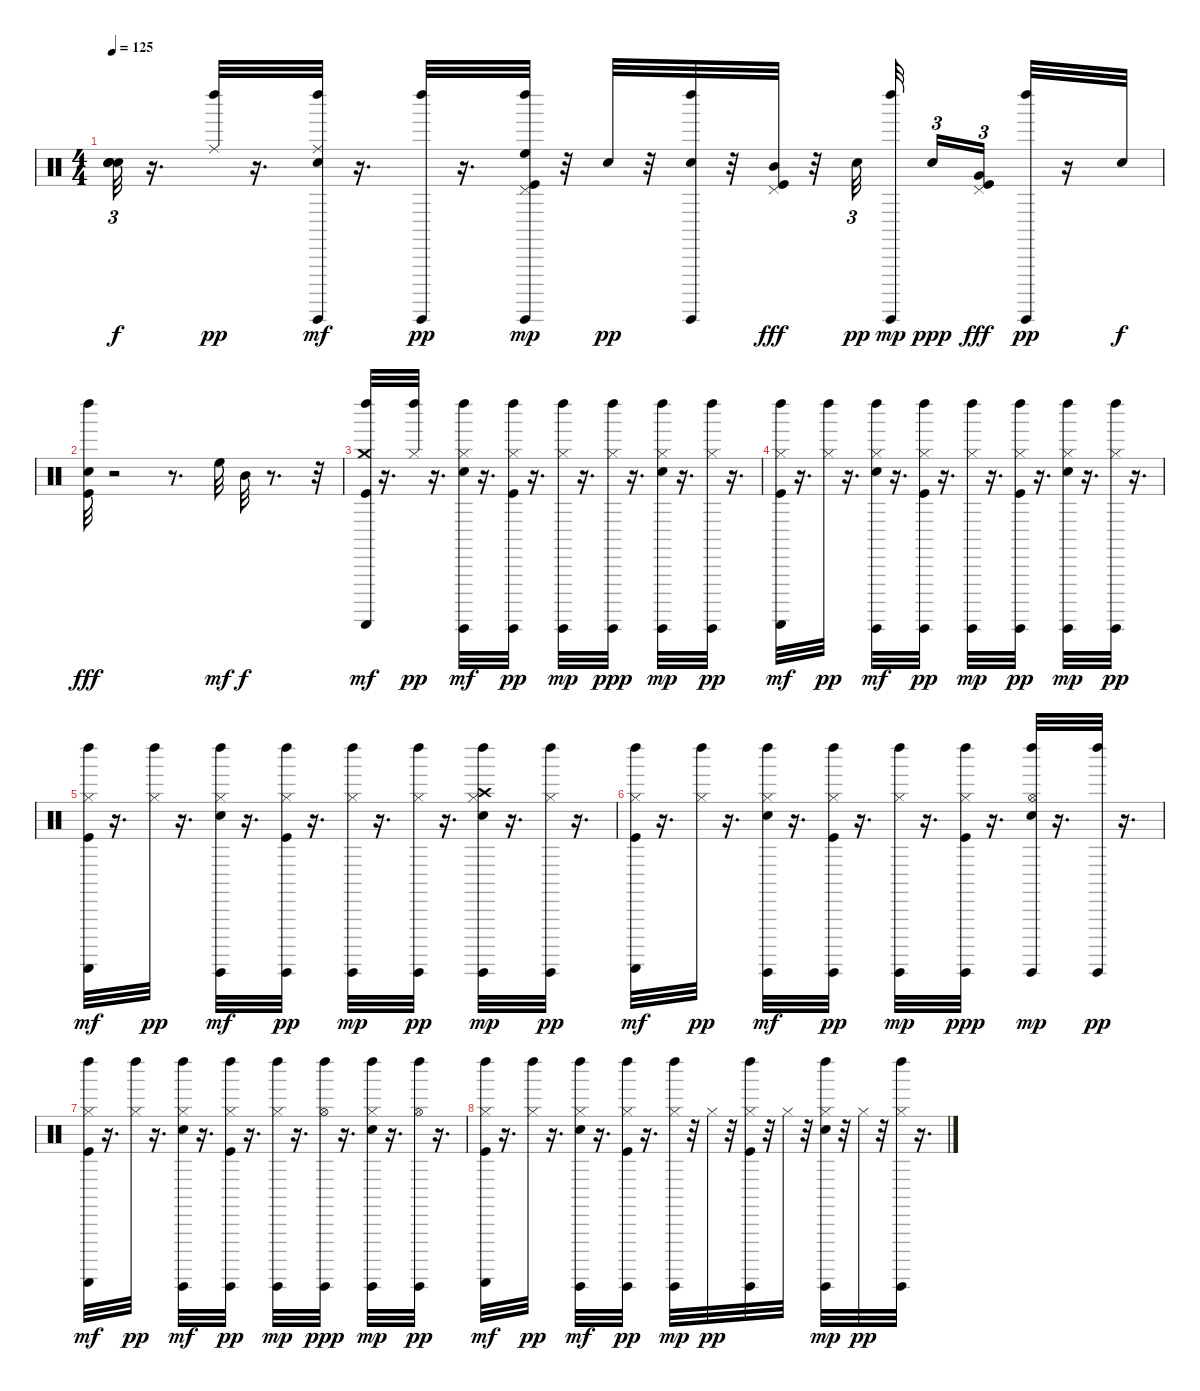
\track "" {instrument percussion}
\staff {score}
\articulation defaults
\ts (4 4)
\tempo 125
\clef neutral
\ks c
("Snare (hit)"{t} "Snare (hit)"{t} "Snare (hit)"{t} "Snare (hit)"{t}).32{tu (3 2) dy f} r.16{d} ("Left Maraca (hit)" "Ride (middle)").32{dy pp} r.16{d} ("Left Maraca (hit)" "Ride (middle)" "Electric Snare (hit)" "Guiro (hit)").32{dy mf} r.16{d} ("Left Maraca (hit)" "Guiro (hit)").32{dy pp} r.16{d} ("Kick (hit)" "Pedal Hi-Hat (hit)" "High Floor Tom (hit)" "Left Maraca (hit)" "Guiro (hit)").32{dy mp} r.32 "Electric Snare (hit)".32{dy pp} r.32 ("Electric Snare (hit)" "Left Maraca (hit)" "Guiro (hit)").32 r.32 ("Kick (hit)" "Pedal Hi-Hat (hit)" "Mid Tom (hit)").32{dy fff} r.32 "Electric Snare (hit)".32{tu (3 2) dy pp} ("Left Maraca (hit)" "Guiro (hit)").32{dy mp beam splitsecondary} "Electric Snare (hit)".16{tu (3 2) dy ppp} ("Very Low Tom (hit)" "Pedal Hi-Hat (hit)" "Kick (hit)").16{tu (3 2) dy fff beam splitsecondary} ("Left Maraca (hit)" "Guiro (hit)").32{dy pp} r.16 "Electric Snare (hit)".32{dy f} |
("Left Maraca (hit)" "Electric Snare (hit)" "Kick (hit)").32{dy fff} r.2 r.8{d} "High Floor Tom (hit)".32{dy mf} "Mid Tom (hit)".32{dy f} r.8{d} r.32 |
("Kick (hit)" "Left Maraca (hit)" "Crash medium (hit)" "Guiro (scrap-return)").32{dy mf} r.16{d} ("Hi-Hat (closed)" "Left Maraca (hit)").32{dy pp} r.16{d} ("Left Maraca (hit)" "Hi-Hat (closed)" "Electric Snare (hit)" "Guiro (hit)").32{dy mf} r.16{d} ("Kick (hit)" "Hi-Hat (closed)" "Left Maraca (hit)" "Guiro (hit)").32{dy pp} r.16{d} ("Hi-Hat (closed)" "Left Maraca (hit)" "Guiro (hit)").32{dy mp} r.16{d} ("Left Maraca (hit)" "Hi-Hat (closed)" "Guiro (hit)").32{dy ppp} r.16{d} ("Hi-Hat (closed)" "Left Maraca (hit)" "Electric Snare (hit)" "Guiro (hit)").32{dy mp} r.16{d} ("Hi-Hat (closed)" "Left Maraca (hit)" "Guiro (hit)").32{dy pp} r.16{d} |
("Kick (hit)" "Hi-Hat (closed)" "Left Maraca (hit)" "Guiro (scrap-return)").32{dy mf} r.16{d} ("Hi-Hat (closed)" "Left Maraca (hit)").32{dy pp} r.16{d} ("Left Maraca (hit)" "Hi-Hat (closed)" "Electric Snare (hit)" "Guiro (hit)").32{dy mf} r.16{d} ("Kick (hit)" "Hi-Hat (closed)" "Left Maraca (hit)" "Guiro (hit)").32{dy pp} r.16{d} ("Left Maraca (hit)" "Hi-Hat (closed)" "Guiro (hit)").32{dy mp} r.16{d} ("Left Maraca (hit)" "Hi-Hat (closed)" "Kick (hit)" "Guiro (hit)").32{dy pp} r.16{d} ("Electric Snare (hit)" "Hi-Hat (closed)" "Left Maraca (hit)" "Guiro (hit)").32{dy mp} r.16{d} ("Hi-Hat (closed)" "Left Maraca (hit)" "Guiro (hit)").32{dy pp} r.16{d} |
("Kick (hit)" "Hi-Hat (closed)" "Left Maraca (hit)" "Guiro (scrap-return)").32{dy mf} r.16{d} ("Left Maraca (hit)" "Hi-Hat (closed)").32{dy pp} r.16{d} ("Hi-Hat (closed)" "Left Maraca (hit)" "Electric Snare (hit)" "Guiro (hit)").32{dy mf} r.16{d} ("Left Maraca (hit)" "Kick (hit)" "Hi-Hat (closed)" "Guiro (hit)").32{dy pp} r.16{d} ("Hi-Hat (closed)" "Left Maraca (hit)" "Guiro (hit)").32{dy mp} r.16{d} ("Left Maraca (hit)" "Hi-Hat (closed)" "Guiro (hit)").32{dy pp} r.16{d} ("Hi-Hat (closed)" "Crash high (hit)" "Electric Snare (hit)" "Left Maraca (hit)" "Guiro (hit)").32{dy mp} r.16{d} ("Left Maraca (hit)" "Hi-Hat (closed)" "Guiro (hit)").32{dy pp} r.16{d} |
("Left Maraca (hit)" "Hi-Hat (closed)" "Kick (hit)" "Guiro (scrap-return)").32{dy mf} r.16{d} ("Hi-Hat (closed)" "Left Maraca (hit)").32{dy pp} r.16{d} ("Electric Snare (hit)" "Hi-Hat (closed)" "Left Maraca (hit)" "Guiro (hit)").32{dy mf} r.16{d} ("Left Maraca (hit)" "Hi-Hat (closed)" "Kick (hit)" "Guiro (hit)").32{dy pp} r.16{d} ("Left Maraca (hit)" "Hi-Hat (closed)" "Guiro (hit)").32{dy mp} r.16{d} ("Kick (hit)" "Left Maraca (hit)" "Hi-Hat (closed)" "Guiro (hit)").32{dy ppp} r.16{d} ("Electric Snare (hit)" "Left Maraca (hit)" "Hi-Hat (open)" "Guiro (hit)").32{dy mp} r.16{d} ("Left Maraca (hit)" "Guiro (hit)").32{dy pp} r.16{d} |
("Left Maraca (hit)" "Hi-Hat (closed)" "Kick (hit)" "Guiro (scrap-return)").32{dy mf} r.16{d} ("Hi-Hat (closed)" "Left Maraca (hit)").32{dy pp} r.16{d} ("Hi-Hat (closed)" "Left Maraca (hit)" "Electric Snare (hit)" "Guiro (hit)").32{dy mf} r.16{d} ("Kick (hit)" "Hi-Hat (closed)" "Left Maraca (hit)" "Guiro (hit)").32{dy pp} r.16{d} ("Hi-Hat (closed)" "Left Maraca (hit)" "Guiro (hit)").32{dy mp} r.16{d} ("Left Maraca (hit)" "Hi-Hat (open)" "Guiro (hit)").32{dy ppp} r.16{d} ("Electric Snare (hit)" "Hi-Hat (closed)" "Left Maraca (hit)" "Guiro (hit)").32{dy mp} r.16{d} ("Hi-Hat (open)" "Left Maraca (hit)" "Guiro (hit)").32{dy pp} r.16{d} |
("Left Maraca (hit)" "Hi-Hat (closed)" "Kick (hit)" "Guiro (scrap-return)").32{dy mf} r.16{d} ("Hi-Hat (closed)" "Left Maraca (hit)").32{dy pp} r.16{d} ("Left Maraca (hit)" "Electric Snare (hit)" "Hi-Hat (closed)" "Guiro (hit)").32{dy mf} r.16{d} ("Left Maraca (hit)" "Kick (hit)" "Hi-Hat (closed)" "Guiro (hit)").32{dy pp} r.16{d} ("Hi-Hat (closed)" "Left Maraca (hit)" "Guiro (hit)").32{dy mp} r.32 "Hi-Hat (closed)".32{dy pp} r.32 ("Kick (hit)" "Left Maraca (hit)" "Hi-Hat (closed)" "Guiro (hit)").32 r.32 "Hi-Hat (closed)".32 r.32 ("Electric Snare (hit)" "Hi-Hat (closed)" "Left Maraca (hit)" "Guiro (hit)").32{dy mp} r.32 "Hi-Hat (closed)".32{dy pp} r.32 ("Left Maraca (hit)" "Hi-Hat (closed)" "Guiro (hit)").32 r.16{d}
